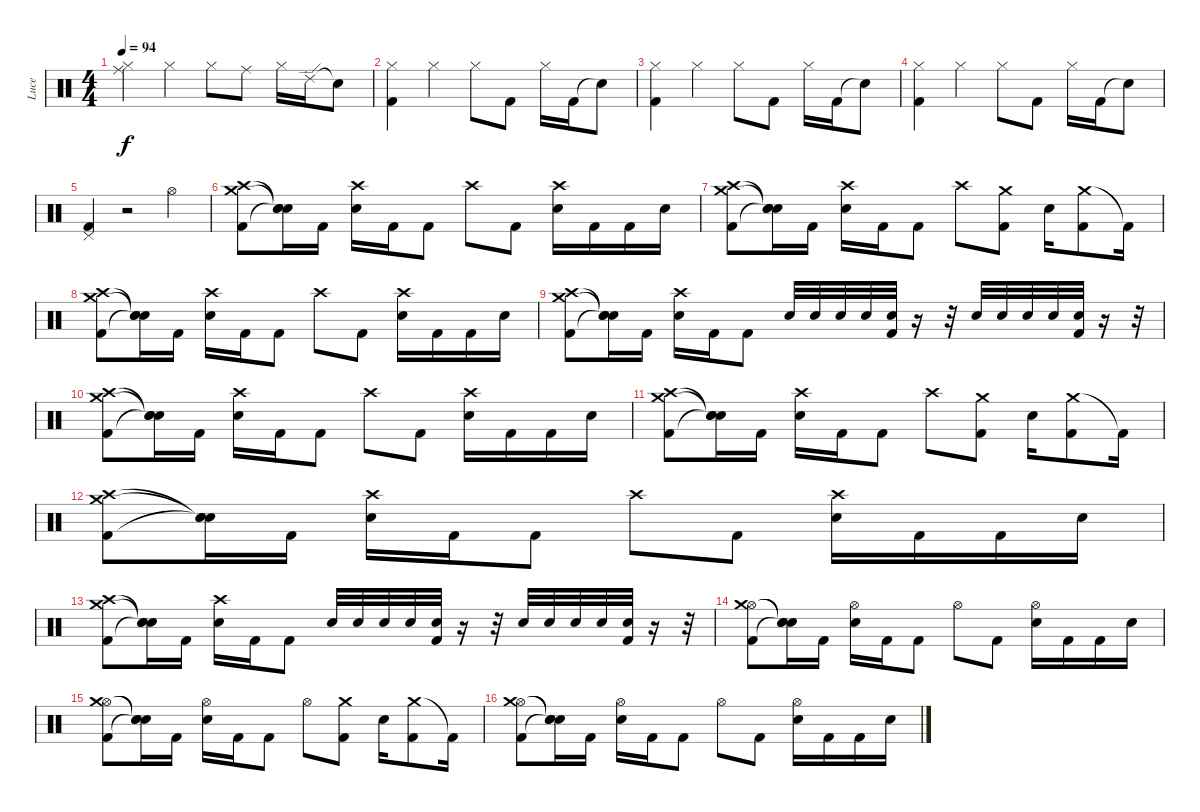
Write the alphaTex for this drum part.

\track ("Luce" "Luce") {instrument percussion}
\staff {score}
\articulation defaults
\ts (4 4)
\tempo 94
\clef neutral
\ks c
("Hi-Hat (closed)" "Ride (middle)").4{dy f} "Hi-Hat (closed)".4 "Hi-Hat (closed)".8 "Ride (middle)".8 "Hi-Hat (closed)".16 "Ride (edge) 2".16 "Snare (hit)"{t}.8 |
("Hi-Hat (closed)" "Kick (hit) 2").4 "Hi-Hat (closed)".4 "Hi-Hat (closed)".8 "Kick (hit) 2".8 "Hi-Hat (closed)".16 "Kick (hit) 2".16 "Snare (hit)"{t}.8 |
("Hi-Hat (closed)" "Kick (hit) 2").4 "Hi-Hat (closed)".4 "Hi-Hat (closed)".8 "Kick (hit) 2".8 "Hi-Hat (closed)".16 "Kick (hit) 2".16 "Snare (hit)"{t}.8 |
("Hi-Hat (closed)" "Kick (hit) 2").4 "Hi-Hat (closed)".4 "Hi-Hat (closed)".8 "Kick (hit) 2".8 "Hi-Hat (closed)".16 "Kick (hit) 2".16 "Snare (hit)"{t}.8 |
("Pedal Hi-Hat (hit)" "Kick (hit) 2").4 r.2 "Hi-Hat (open)".4 |
("Crash high (hit)" "Crash medium (hit)" "Kick (hit) 2").8 ("Snare (hit)"{t} "Snare (hit)"{t} "Snare (hit)"{t}).16 "Kick (hit) 2".16 ("Crash high (hit)" "Electric Snare (hit)").16 "Kick (hit) 2".16 "Kick (hit) 2".8 "Crash high (hit)".8 "Kick (hit) 2".8 ("Crash high (hit)" "Electric Snare (hit)").16 "Kick (hit) 2".16 "Kick (hit) 2".16 "Electric Snare (hit)".16 |
("Crash high (hit)" "Crash medium (hit)" "Kick (hit) 2").8 ("Snare (hit)"{t} "Snare (hit)"{t} "Snare (hit)"{t}).16 "Kick (hit) 2".16 ("Crash high (hit)" "Electric Snare (hit)").16 "Kick (hit) 2".16 "Kick (hit) 2".8 "Crash high (hit)".8 ("Crash medium (hit)" "Kick (hit) 2").8 "Electric Snare (hit)".16 ("Crash medium (hit)" "Kick (hit) 2").8 "Kick (hit) 2"{t}.16 |
("Crash high (hit)" "Crash medium (hit)" "Kick (hit) 2").8 ("Snare (hit)"{t} "Snare (hit)"{t} "Snare (hit)"{t}).16 "Kick (hit) 2".16 ("Crash high (hit)" "Electric Snare (hit)").16 "Kick (hit) 2".16 "Kick (hit) 2".8 "Crash high (hit)".8 "Kick (hit) 2".8 ("Crash high (hit)" "Electric Snare (hit)").16 "Kick (hit) 2".16 "Kick (hit) 2".16 "Electric Snare (hit)".16 |
("Crash high (hit)" "Crash medium (hit)" "Kick (hit) 2").8 ("Snare (hit)"{t} "Snare (hit)"{t} "Snare (hit)"{t}).16 "Kick (hit) 2".16 ("Crash high (hit)" "Electric Snare (hit)").16 "Kick (hit) 2".16 "Kick (hit) 2".8 "Electric Snare (hit)".32 "Electric Snare (hit)".32 "Electric Snare (hit)".32 "Electric Snare (hit)".32 ("Electric Snare (hit)" "Kick (hit) 2").32 r.16 r.32 "Electric Snare (hit)".32 "Electric Snare (hit)".32 "Electric Snare (hit)".32 "Electric Snare (hit)".32 ("Electric Snare (hit)" "Kick (hit) 2").32 r.16 r.32 |
("Crash high (hit)" "Crash medium (hit)" "Kick (hit) 2").8 ("Snare (hit)"{t} "Snare (hit)"{t} "Snare (hit)"{t}).16 "Kick (hit) 2".16 ("Crash high (hit)" "Electric Snare (hit)").16 "Kick (hit) 2".16 "Kick (hit) 2".8 "Crash high (hit)".8 "Kick (hit) 2".8 ("Crash high (hit)" "Electric Snare (hit)").16 "Kick (hit) 2".16 "Kick (hit) 2".16 "Electric Snare (hit)".16 |
("Crash high (hit)" "Crash medium (hit)" "Kick (hit) 2").8 ("Snare (hit)"{t} "Snare (hit)"{t} "Snare (hit)"{t}).16 "Kick (hit) 2".16 ("Crash high (hit)" "Electric Snare (hit)").16 "Kick (hit) 2".16 "Kick (hit) 2".8 "Crash high (hit)".8 ("Crash medium (hit)" "Kick (hit) 2").8 "Electric Snare (hit)".16 ("Crash medium (hit)" "Kick (hit) 2").8 "Kick (hit) 2"{t}.16 |
("Crash high (hit)" "Crash medium (hit)" "Kick (hit) 2").8 ("Snare (hit)"{t} "Snare (hit)"{t} "Snare (hit)"{t}).16 "Kick (hit) 2".16 ("Crash high (hit)" "Electric Snare (hit)").16 "Kick (hit) 2".16 "Kick (hit) 2".8 "Crash high (hit)".8 "Kick (hit) 2".8 ("Crash high (hit)" "Electric Snare (hit)").16 "Kick (hit) 2".16 "Kick (hit) 2".16 "Electric Snare (hit)".16 |
("Crash high (hit)" "Crash medium (hit)" "Kick (hit) 2").8 ("Snare (hit)"{t} "Snare (hit)"{t} "Snare (hit)"{t}).16 "Kick (hit) 2".16 ("Crash high (hit)" "Electric Snare (hit)").16 "Kick (hit) 2".16 "Kick (hit) 2".8 "Electric Snare (hit)".32 "Electric Snare (hit)".32 "Electric Snare (hit)".32 "Electric Snare (hit)".32 ("Electric Snare (hit)" "Kick (hit) 2").32 r.16 r.32 "Electric Snare (hit)".32 "Electric Snare (hit)".32 "Electric Snare (hit)".32 "Electric Snare (hit)".32 ("Electric Snare (hit)" "Kick (hit) 2").32 r.16 r.32 |
("Hi-Hat (open)" "Crash medium (hit)" "Kick (hit) 2").8 ("Snare (hit)"{t} "Snare (hit)"{t} "Snare (hit)"{t}).16 "Kick (hit) 2".16 ("Hi-Hat (open)" "Electric Snare (hit)").16 "Kick (hit) 2".16 "Kick (hit) 2".8 "Hi-Hat (open)".8 "Kick (hit) 2".8 ("Hi-Hat (open)" "Electric Snare (hit)").16 "Kick (hit) 2".16 "Kick (hit) 2".16 "Electric Snare (hit)".16 |
("Hi-Hat (open)" "Crash medium (hit)" "Kick (hit) 2").8 ("Snare (hit)"{t} "Snare (hit)"{t} "Snare (hit)"{t}).16 "Kick (hit) 2".16 ("Hi-Hat (open)" "Electric Snare (hit)").16 "Kick (hit) 2".16 "Kick (hit) 2".8 "Hi-Hat (open)".8 ("Crash medium (hit)" "Kick (hit) 2").8 "Electric Snare (hit)".16 ("Crash medium (hit)" "Kick (hit) 2").8 "Kick (hit) 2"{t}.16 |
("Hi-Hat (open)" "Crash medium (hit)" "Kick (hit) 2").8 ("Snare (hit)"{t} "Snare (hit)"{t} "Snare (hit)"{t}).16 "Kick (hit) 2".16 ("Hi-Hat (open)" "Electric Snare (hit)").16 "Kick (hit) 2".16 "Kick (hit) 2".8 "Hi-Hat (open)".8 "Kick (hit) 2".8 ("Hi-Hat (open)" "Electric Snare (hit)").16 "Kick (hit) 2".16 "Kick (hit) 2".16 "Electric Snare (hit)".16
